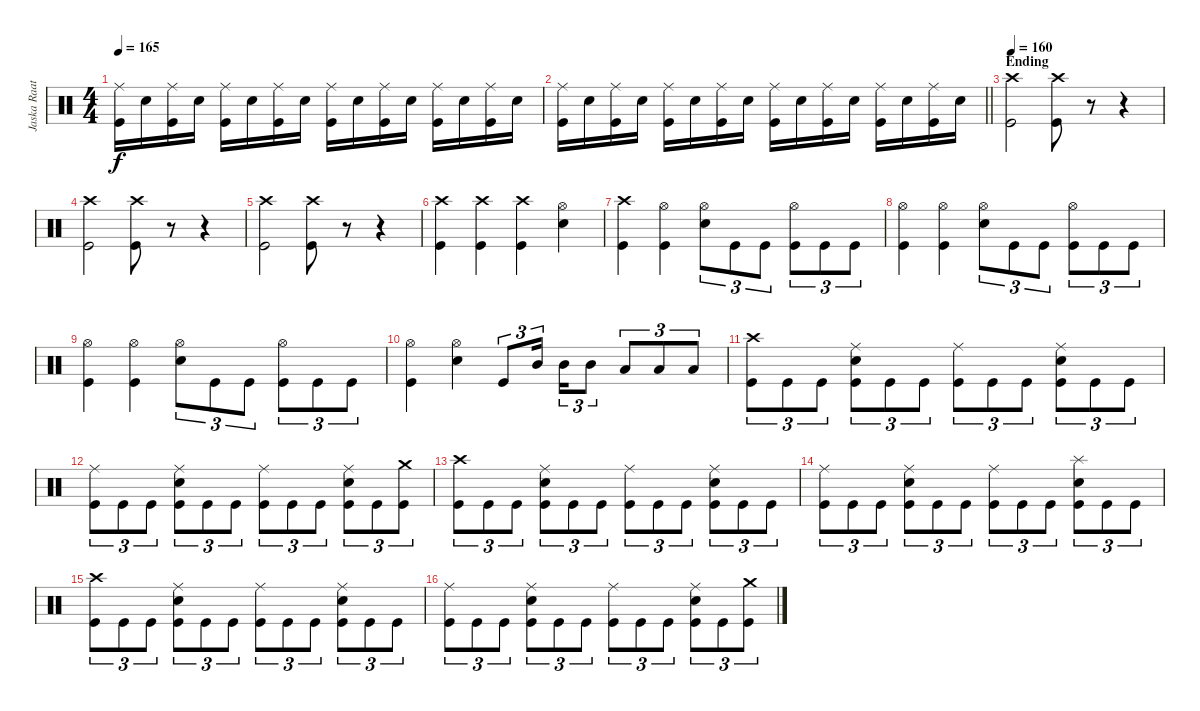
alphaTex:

\track ("Jaska Raatikainen" "Jaska Raat") {instrument percussion}
\staff {score}
\articulation defaults
\ts (4 4)
\tempo 165
\clef neutral
\ks c
("Ride (middle)" "Kick (hit)").16{dy f} "Electric Snare (hit)".16 ("Ride (middle)" "Kick (hit)").16 "Electric Snare (hit)".16 ("Ride (middle)" "Kick (hit)").16 "Electric Snare (hit)".16 ("Ride (middle)" "Kick (hit)").16 "Electric Snare (hit)".16 ("Ride (middle)" "Kick (hit)").16 "Electric Snare (hit)".16 ("Ride (middle)" "Kick (hit)").16 "Electric Snare (hit)".16 ("Ride (middle)" "Kick (hit)").16 "Electric Snare (hit)".16 ("Ride (middle)" "Kick (hit)").16 "Electric Snare (hit)".16 |
\barLineRight lightlight
("Ride (middle)" "Kick (hit)").16 "Electric Snare (hit)".16 ("Ride (middle)" "Kick (hit)").16 "Electric Snare (hit)".16 ("Ride (middle)" "Kick (hit)").16 "Electric Snare (hit)".16 ("Ride (middle)" "Kick (hit)").16 "Electric Snare (hit)".16 ("Ride (middle)" "Kick (hit)").16 "Electric Snare (hit)".16 ("Ride (middle)" "Kick (hit)").16 "Electric Snare (hit)".16 ("Ride (middle)" "Kick (hit)").16 "Electric Snare (hit)".16 ("Ride (middle)" "Kick (hit)").16 "Electric Snare (hit)".16 |
\section ("" "Ending")
\tempo 160
("Crash high (hit)" "Kick (hit)").2 ("Crash high (hit)" "Kick (hit)").8 r.8 r.4 |
("Crash high (hit)" "Kick (hit)").2 ("Crash high (hit)" "Kick (hit)").8 r.8 r.4 |
("Crash high (hit)" "Kick (hit)").2 ("Crash high (hit)" "Kick (hit)").8 r.8 r.4 |
("Crash high (hit)" "Kick (hit)").4 ("Crash high (hit)" "Kick (hit)").4 ("Crash high (hit)" "Kick (hit)").4 ("Hi-Hat (open)" "Electric Snare (hit)").4 |
("Crash high (hit)" "Kick (hit)").4 ("Hi-Hat (open)" "Kick (hit)").4 ("Hi-Hat (open)" "Electric Snare (hit)").8{tu (3 2)} "Kick (hit)".8{tu (3 2)} "Kick (hit)".8{tu (3 2)} ("Hi-Hat (open)" "Kick (hit)").8{tu (3 2)} "Kick (hit)".8{tu (3 2)} "Kick (hit)".8{tu (3 2)} |
("Hi-Hat (open)" "Kick (hit)").4 ("Hi-Hat (open)" "Kick (hit)").4 ("Hi-Hat (open)" "Electric Snare (hit)").8{tu (3 2)} "Kick (hit)".8{tu (3 2)} "Kick (hit)".8{tu (3 2)} ("Hi-Hat (open)" "Kick (hit)").8{tu (3 2)} "Kick (hit)".8{tu (3 2)} "Kick (hit)".8{tu (3 2)} |
("Hi-Hat (open)" "Kick (hit)").4 ("Hi-Hat (open)" "Kick (hit)").4 ("Hi-Hat (open)" "Electric Snare (hit)").8{tu (3 2)} "Kick (hit)".8{tu (3 2)} "Kick (hit)".8{tu (3 2)} ("Hi-Hat (open)" "Kick (hit)").8{tu (3 2)} "Kick (hit)".8{tu (3 2)} "Kick (hit)".8{tu (3 2)} |
("Hi-Hat (open)" "Kick (hit)").4 ("Hi-Hat (open)" "Electric Snare (hit)").4 "Kick (hit)".8{tu (3 2)} "Mid Tom (hit)".16{tu (3 2) beam splitsecondary} "Mid Tom (hit)".16{tu (3 2)} "Mid Tom (hit)".8{tu (3 2)} "Low Tom (hit)".8{tu (3 2)} "Low Tom (hit)".8{tu (3 2)} "Low Tom (hit)".8{tu (3 2)} |
("Crash high (hit)" "Kick (hit)").8{tu (3 2)} "Kick (hit)".8{tu (3 2)} "Kick (hit)".8{tu (3 2)} ("Ride (middle)" "Electric Snare (hit)" "Kick (hit)").8{tu (3 2)} "Kick (hit)".8{tu (3 2)} "Kick (hit)".8{tu (3 2)} ("Ride (middle)" "Kick (hit)").8{tu (3 2)} "Kick (hit)".8{tu (3 2)} "Kick (hit)".8{tu (3 2)} ("Ride (middle)" "Electric Snare (hit)" "Kick (hit)").8{tu (3 2)} "Kick (hit)".8{tu (3 2)} "Kick (hit)".8{tu (3 2)} |
("Ride (middle)" "Kick (hit)").8{tu (3 2)} "Kick (hit)".8{tu (3 2)} "Kick (hit)".8{tu (3 2)} ("Ride (middle)" "Electric Snare (hit)" "Kick (hit)").8{tu (3 2)} "Kick (hit)".8{tu (3 2)} "Kick (hit)".8{tu (3 2)} ("Ride (middle)" "Kick (hit)").8{tu (3 2)} "Kick (hit)".8{tu (3 2)} "Kick (hit)".8{tu (3 2)} ("Ride (middle)" "Electric Snare (hit)" "Kick (hit)").8{tu (3 2)} "Kick (hit)".8{tu (3 2)} ("Crash medium (hit)" "Kick (hit)").8{tu (3 2)} |
("Crash high (hit)" "Kick (hit)").8{tu (3 2)} "Kick (hit)".8{tu (3 2)} "Kick (hit)".8{tu (3 2)} ("Ride (middle)" "Electric Snare (hit)" "Kick (hit)").8{tu (3 2)} "Kick (hit)".8{tu (3 2)} "Kick (hit)".8{tu (3 2)} ("Ride (middle)" "Kick (hit)").8{tu (3 2)} "Kick (hit)".8{tu (3 2)} "Kick (hit)".8{tu (3 2)} ("Ride (middle)" "Electric Snare (hit)" "Kick (hit)").8{tu (3 2)} "Kick (hit)".8{tu (3 2)} "Kick (hit)".8{tu (3 2)} |
("Ride (middle)" "Kick (hit)").8{tu (3 2)} "Kick (hit)".8{tu (3 2)} "Kick (hit)".8{tu (3 2)} ("Ride (middle)" "Electric Snare (hit)" "Kick (hit)").8{tu (3 2)} "Kick (hit)".8{tu (3 2)} "Kick (hit)".8{tu (3 2)} ("Ride (middle)" "Kick (hit)").8{tu (3 2)} "Kick (hit)".8{tu (3 2)} "Kick (hit)".8{tu (3 2)} ("Splash (hit)" "Electric Snare (hit)" "Kick (hit)").8{tu (3 2)} "Kick (hit)".8{tu (3 2)} "Kick (hit)".8{tu (3 2)} |
("Crash high (hit)" "Kick (hit)").8{tu (3 2)} "Kick (hit)".8{tu (3 2)} "Kick (hit)".8{tu (3 2)} ("Ride (middle)" "Electric Snare (hit)" "Kick (hit)").8{tu (3 2)} "Kick (hit)".8{tu (3 2)} "Kick (hit)".8{tu (3 2)} ("Ride (middle)" "Kick (hit)").8{tu (3 2)} "Kick (hit)".8{tu (3 2)} "Kick (hit)".8{tu (3 2)} ("Ride (middle)" "Electric Snare (hit)" "Kick (hit)").8{tu (3 2)} "Kick (hit)".8{tu (3 2)} "Kick (hit)".8{tu (3 2)} |
("Ride (middle)" "Kick (hit)").8{tu (3 2)} "Kick (hit)".8{tu (3 2)} "Kick (hit)".8{tu (3 2)} ("Ride (middle)" "Electric Snare (hit)" "Kick (hit)").8{tu (3 2)} "Kick (hit)".8{tu (3 2)} "Kick (hit)".8{tu (3 2)} ("Ride (middle)" "Kick (hit)").8{tu (3 2)} "Kick (hit)".8{tu (3 2)} "Kick (hit)".8{tu (3 2)} ("Ride (middle)" "Electric Snare (hit)" "Kick (hit)").8{tu (3 2)} "Kick (hit)".8{tu (3 2)} ("Crash medium (hit)" "Kick (hit)").8{tu (3 2)}
